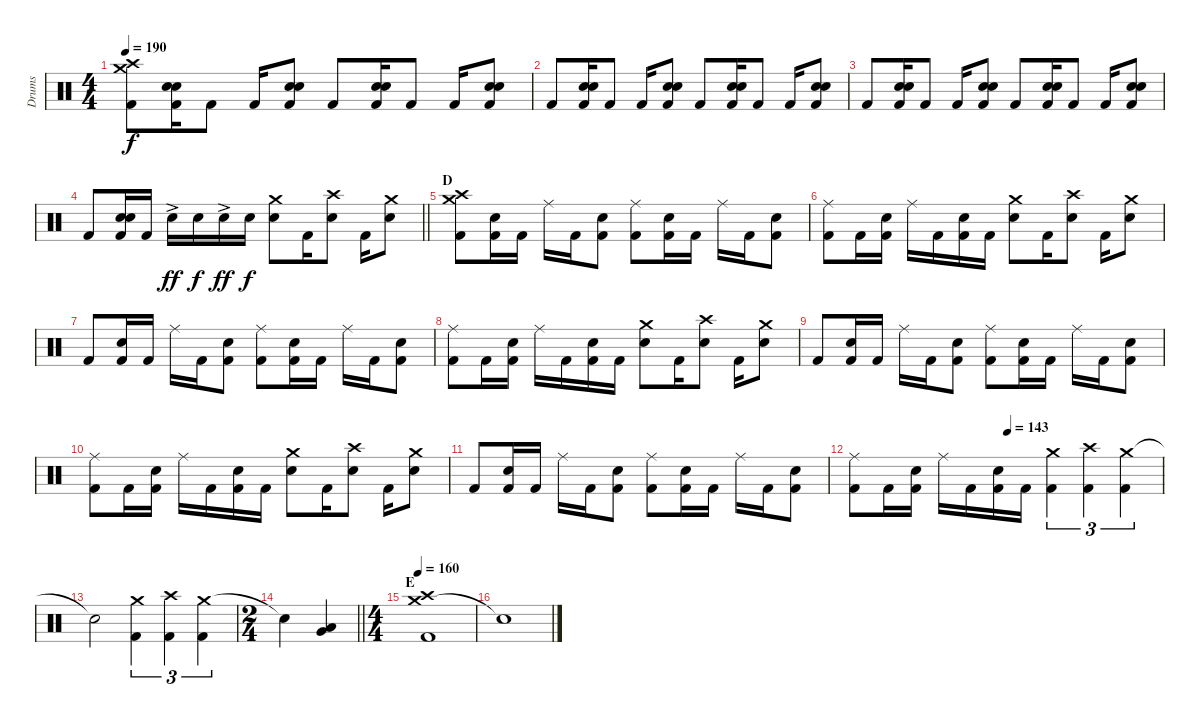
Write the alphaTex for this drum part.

\track ("Drums" "Drums") {instrument percussion}
\staff {score}
\articulation defaults
\ts (4 4)
\tempo 190
\clef neutral
\ks c
("Crash medium (hit)" "Crash high (hit)" "Kick (hit) 2").8{dy f} ("Electric Snare (hit)" "Electric Snare (hit)" "Kick (hit) 2").16 "Kick (hit) 2".8 "Kick (hit) 2".16 ("Electric Snare (hit)" "Electric Snare (hit)" "Kick (hit) 2").8 "Kick (hit) 2".8 ("Electric Snare (hit)" "Electric Snare (hit)" "Kick (hit) 2").16 "Kick (hit) 2".8 "Kick (hit) 2".16 ("Electric Snare (hit)" "Electric Snare (hit)" "Kick (hit) 2").8 |
"Kick (hit) 2".8 ("Electric Snare (hit)" "Electric Snare (hit)" "Kick (hit) 2").16 "Kick (hit) 2".8 "Kick (hit) 2".16 ("Electric Snare (hit)" "Electric Snare (hit)" "Kick (hit) 2").8 "Kick (hit) 2".8 ("Electric Snare (hit)" "Electric Snare (hit)" "Kick (hit) 2").16 "Kick (hit) 2".8 "Kick (hit) 2".16 ("Electric Snare (hit)" "Electric Snare (hit)" "Kick (hit) 2").8 |
"Kick (hit) 2".8 ("Electric Snare (hit)" "Electric Snare (hit)" "Kick (hit) 2").16 "Kick (hit) 2".8 "Kick (hit) 2".16 ("Electric Snare (hit)" "Electric Snare (hit)" "Kick (hit) 2").8 "Kick (hit) 2".8 ("Electric Snare (hit)" "Electric Snare (hit)" "Kick (hit) 2").16 "Kick (hit) 2".8 "Kick (hit) 2".16 ("Electric Snare (hit)" "Electric Snare (hit)" "Kick (hit) 2").8 |
\barLineRight lightlight "Kick (hit) 2".8
("Electric Snare (hit)" "Electric Snare (hit)" "Kick (hit) 2").16 "Kick (hit) 2".16 "Electric Snare (hit)"{ac}.16{dy ff} "Electric Snare (hit)".16{dy f} "Electric Snare (hit)"{ac}.16{dy ff} "Electric Snare (hit)".16{dy f} ("Crash medium (hit)" "Electric Snare (hit)").8 "Kick (hit) 2".16 ("Crash high (hit)" "Electric Snare (hit)").8 "Kick (hit) 2".16 ("Crash medium (hit)" "Electric Snare (hit)").8 |
\section ("" "D")
("Crash medium (hit)" "Crash high (hit)" "Kick (hit) 2").8 ("Electric Snare (hit)" "Kick (hit) 2").16 "Kick (hit) 2".16 "Ride (middle)".16 "Kick (hit) 2".16 ("Electric Snare (hit)" "Kick (hit) 2").8 ("Ride (middle)" "Kick (hit) 2").8 ("Electric Snare (hit)" "Kick (hit) 2").16 "Kick (hit) 2".16 "Ride (middle)".16 "Kick (hit) 2".16 ("Electric Snare (hit)" "Kick (hit) 2").8 |
("Ride (middle)" "Kick (hit) 2").8 "Kick (hit) 2".16 ("Electric Snare (hit)" "Kick (hit) 2").16 "Ride (middle)".16 "Kick (hit) 2".16 ("Electric Snare (hit)" "Kick (hit) 2").16 "Kick (hit) 2".16 ("Crash medium (hit)" "Electric Snare (hit)").8 "Kick (hit) 2".16 ("Crash high (hit)" "Electric Snare (hit)").8 "Kick (hit) 2".16 ("Crash medium (hit)" "Electric Snare (hit)").8 |
"Kick (hit) 2".8 ("Electric Snare (hit)" "Kick (hit) 2").16 "Kick (hit) 2".16 "Ride (middle)".16 "Kick (hit) 2".16 ("Electric Snare (hit)" "Kick (hit) 2").8 ("Ride (middle)" "Kick (hit) 2").8 ("Electric Snare (hit)" "Kick (hit) 2").16 "Kick (hit) 2".16 "Ride (middle)".16 "Kick (hit) 2".16 ("Electric Snare (hit)" "Kick (hit) 2").8 |
("Ride (middle)" "Kick (hit) 2").8 "Kick (hit) 2".16 ("Electric Snare (hit)" "Kick (hit) 2").16 "Ride (middle)".16 "Kick (hit) 2".16 ("Electric Snare (hit)" "Kick (hit) 2").16 "Kick (hit) 2".16 ("Crash medium (hit)" "Electric Snare (hit)").8 "Kick (hit) 2".16 ("Crash high (hit)" "Electric Snare (hit)").8 "Kick (hit) 2".16 ("Crash medium (hit)" "Electric Snare (hit)").8 |
"Kick (hit) 2".8 ("Electric Snare (hit)" "Kick (hit) 2").16 "Kick (hit) 2".16 "Ride (middle)".16 "Kick (hit) 2".16 ("Electric Snare (hit)" "Kick (hit) 2").8 ("Ride (middle)" "Kick (hit) 2").8 ("Electric Snare (hit)" "Kick (hit) 2").16 "Kick (hit) 2".16 "Ride (middle)".16 "Kick (hit) 2".16 ("Electric Snare (hit)" "Kick (hit) 2").8 |
("Ride (middle)" "Kick (hit) 2").8 "Kick (hit) 2".16 ("Electric Snare (hit)" "Kick (hit) 2").16 "Ride (middle)".16 "Kick (hit) 2".16 ("Electric Snare (hit)" "Kick (hit) 2").16 "Kick (hit) 2".16 ("Crash medium (hit)" "Electric Snare (hit)").8 "Kick (hit) 2".16 ("Crash high (hit)" "Electric Snare (hit)").8 "Kick (hit) 2".16 ("Crash medium (hit)" "Electric Snare (hit)").8 |
"Kick (hit) 2".8 ("Electric Snare (hit)" "Kick (hit) 2").16 "Kick (hit) 2".16 "Ride (middle)".16 "Kick (hit) 2".16 ("Electric Snare (hit)" "Kick (hit) 2").8 ("Ride (middle)" "Kick (hit) 2").8 ("Electric Snare (hit)" "Kick (hit) 2").16 "Kick (hit) 2".16 "Ride (middle)".16 "Kick (hit) 2".16 ("Electric Snare (hit)" "Kick (hit) 2").8 |
\tempo (143 0.5)
("Ride (middle)" "Kick (hit) 2").8 "Kick (hit) 2".16 ("Electric Snare (hit)" "Kick (hit) 2").16 "Ride (middle)".16 "Kick (hit) 2".16 ("Electric Snare (hit)" "Kick (hit) 2").16 "Kick (hit) 2".16 ("Crash medium (hit)" "Kick (hit) 2").4{tu (3 2)} ("Crash high (hit)" "Kick (hit) 2").4{tu (3 2)} ("Crash medium (hit)" "Kick (hit) 2").4{tu (3 2)} |
"Snare (hit)"{t}.2 ("Crash medium (hit)" "Kick (hit) 2").4{tu (3 2)} ("Crash high (hit)" "Kick (hit) 2").4{tu (3 2)} ("Crash medium (hit)" "Kick (hit) 2").4{tu (3 2)} |
\ts (2 4)
\barLineRight lightlight "Snare (hit)"{t}.4
("Very Low Tom (hit)" "Low Floor Tom (hit)").4 |
\ts (4 4)
\section ("" "E")
\tempo 160
("Crash medium (hit)" "Crash high (hit)" "Kick (hit) 2").1 |
"Snare (hit)"{t}.1
